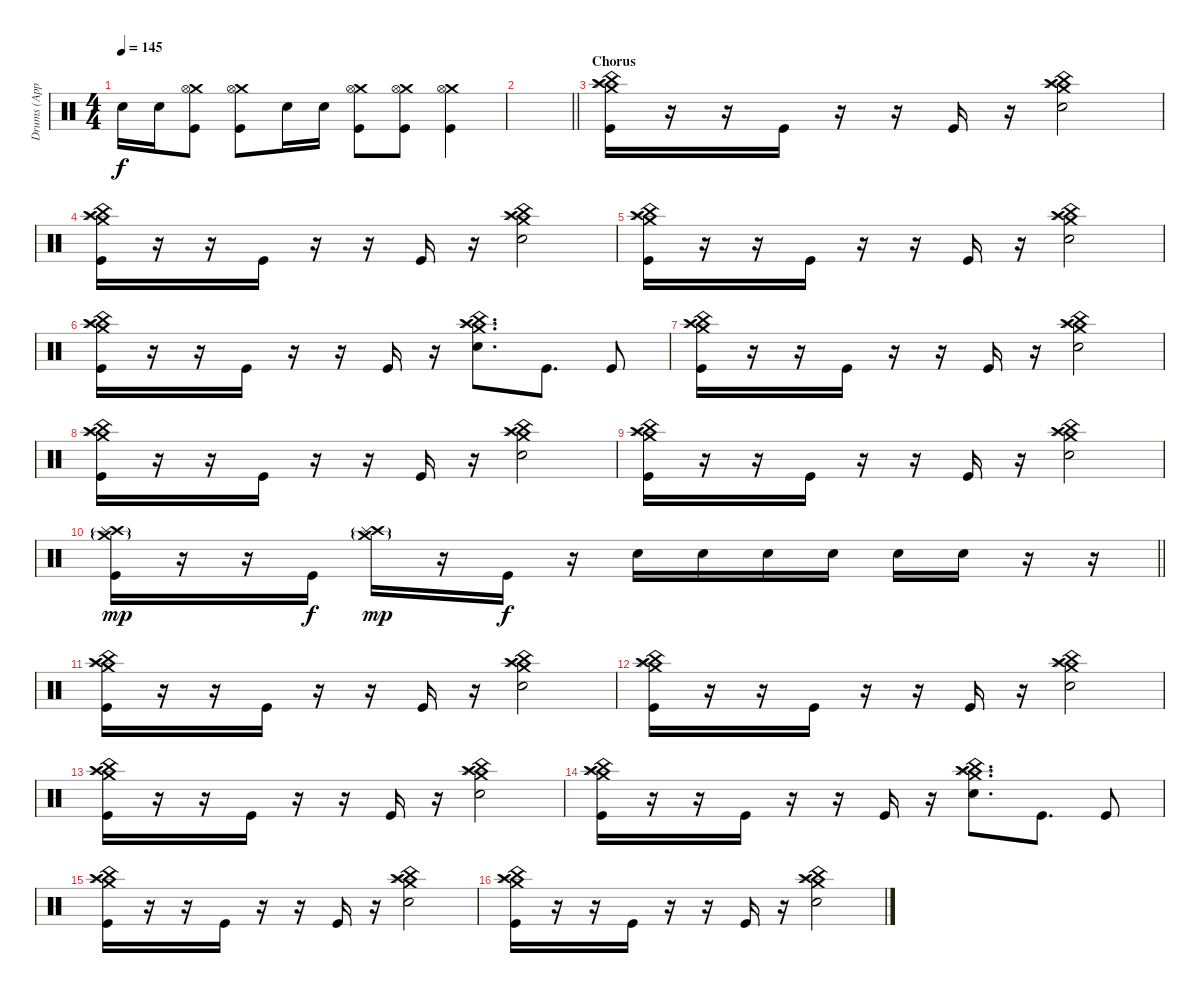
\track ("Drums (Approx.)" "Drums (App") {instrument percussion}
\staff {score}
\articulation defaults
\ts (4 4)
\tempo 145
\clef neutral
\ks c "Electric Snare (hit)".16{dy f} "Electric Snare (hit)".16
("Crash medium (hit)" "Hi-Hat (open)" "Kick (hit)").8 ("Crash medium (hit)" "Hi-Hat (open)" "Kick (hit)").8 "Electric Snare (hit)".16 "Electric Snare (hit)".16 ("Crash medium (hit)" "Hi-Hat (open)" "Kick (hit)").8 ("Crash medium (hit)" "Hi-Hat (open)" "Kick (hit)").8 ("Crash medium (hit)" "Hi-Hat (open)" "Kick (hit)").4 |
\barLineRight lightlight
|
\section ("" "Chorus")
("Crash high (hit)" "Crash medium (hit)" "Splash (hit)" "China (hit)" "Kick (hit)").16 r.16 r.16 "Kick (hit)".16 r.16 r.16 "Kick (hit)".16 r.16 ("Crash high (hit)" "Crash medium (hit)" "Splash (hit)" "China (hit)" "Electric Snare (hit)").2 |
("Crash high (hit)" "Crash medium (hit)" "Splash (hit)" "China (hit)" "Kick (hit)").16 r.16 r.16 "Kick (hit)".16 r.16 r.16 "Kick (hit)".16 r.16 ("Crash high (hit)" "Crash medium (hit)" "Splash (hit)" "China (hit)" "Electric Snare (hit)").2 |
("Crash high (hit)" "Crash medium (hit)" "Splash (hit)" "China (hit)" "Kick (hit)").16 r.16 r.16 "Kick (hit)".16 r.16 r.16 "Kick (hit)".16 r.16 ("Crash high (hit)" "Crash medium (hit)" "Splash (hit)" "China (hit)" "Electric Snare (hit)").2 |
("Crash high (hit)" "Crash medium (hit)" "Splash (hit)" "China (hit)" "Kick (hit)").16 r.16 r.16 "Kick (hit)".16 r.16 r.16 "Kick (hit)".16 r.16 ("Crash high (hit)" "Crash medium (hit)" "Splash (hit)" "China (hit)" "Electric Snare (hit)").8{d} "Kick (hit)".8{d} "Kick (hit)".8 |
("Crash high (hit)" "Crash medium (hit)" "Splash (hit)" "China (hit)" "Kick (hit)").16 r.16 r.16 "Kick (hit)".16 r.16 r.16 "Kick (hit)".16 r.16 ("Crash high (hit)" "Crash medium (hit)" "Splash (hit)" "China (hit)" "Electric Snare (hit)").2 |
("Crash high (hit)" "Crash medium (hit)" "Splash (hit)" "China (hit)" "Kick (hit)").16 r.16 r.16 "Kick (hit)".16 r.16 r.16 "Kick (hit)".16 r.16 ("Crash high (hit)" "Crash medium (hit)" "Splash (hit)" "China (hit)" "Electric Snare (hit)").2 |
("Crash high (hit)" "Crash medium (hit)" "Splash (hit)" "China (hit)" "Kick (hit)").16 r.16 r.16 "Kick (hit)".16 r.16 r.16 "Kick (hit)".16 r.16 ("Crash high (hit)" "Crash medium (hit)" "Splash (hit)" "China (hit)" "Electric Snare (hit)").2 |
\barLineRight lightlight
("Crash high (hit)"{g} "Crash medium (hit)"{g} "Splash (hit)" "Kick (hit)").16{dy mp} r.16 r.16 "Kick (hit)".16{dy f} ("Crash high (hit)"{g} "Crash medium (hit)"{g} "Splash (hit)").16{dy mp} r.16 "Kick (hit)".16{dy f} r.16 "Electric Snare (hit)".16 "Electric Snare (hit)".16 "Electric Snare (hit)".16 "Electric Snare (hit)".16 "Electric Snare (hit)".16 "Electric Snare (hit)".16 r.16 r.16 |
("Crash high (hit)" "Crash medium (hit)" "Splash (hit)" "China (hit)" "Kick (hit)").16 r.16 r.16 "Kick (hit)".16 r.16 r.16 "Kick (hit)".16 r.16 ("Crash high (hit)" "Crash medium (hit)" "Splash (hit)" "China (hit)" "Electric Snare (hit)").2 |
("Crash high (hit)" "Crash medium (hit)" "Splash (hit)" "China (hit)" "Kick (hit)").16 r.16 r.16 "Kick (hit)".16 r.16 r.16 "Kick (hit)".16 r.16 ("Crash high (hit)" "Crash medium (hit)" "Splash (hit)" "China (hit)" "Electric Snare (hit)").2 |
("Crash high (hit)" "Crash medium (hit)" "Splash (hit)" "China (hit)" "Kick (hit)").16 r.16 r.16 "Kick (hit)".16 r.16 r.16 "Kick (hit)".16 r.16 ("Crash high (hit)" "Crash medium (hit)" "Splash (hit)" "China (hit)" "Electric Snare (hit)").2 |
("Crash high (hit)" "Crash medium (hit)" "Splash (hit)" "China (hit)" "Kick (hit)").16 r.16 r.16 "Kick (hit)".16 r.16 r.16 "Kick (hit)".16 r.16 ("Crash high (hit)" "Crash medium (hit)" "Splash (hit)" "China (hit)" "Electric Snare (hit)").8{d} "Kick (hit)".8{d} "Kick (hit)".8 |
("Crash high (hit)" "Crash medium (hit)" "Splash (hit)" "China (hit)" "Kick (hit)").16 r.16 r.16 "Kick (hit)".16 r.16 r.16 "Kick (hit)".16 r.16 ("Crash high (hit)" "Crash medium (hit)" "Splash (hit)" "China (hit)" "Electric Snare (hit)").2 |
("Crash high (hit)" "Crash medium (hit)" "Splash (hit)" "China (hit)" "Kick (hit)").16 r.16 r.16 "Kick (hit)".16 r.16 r.16 "Kick (hit)".16 r.16 ("Crash high (hit)" "Crash medium (hit)" "Splash (hit)" "China (hit)" "Electric Snare (hit)").2
